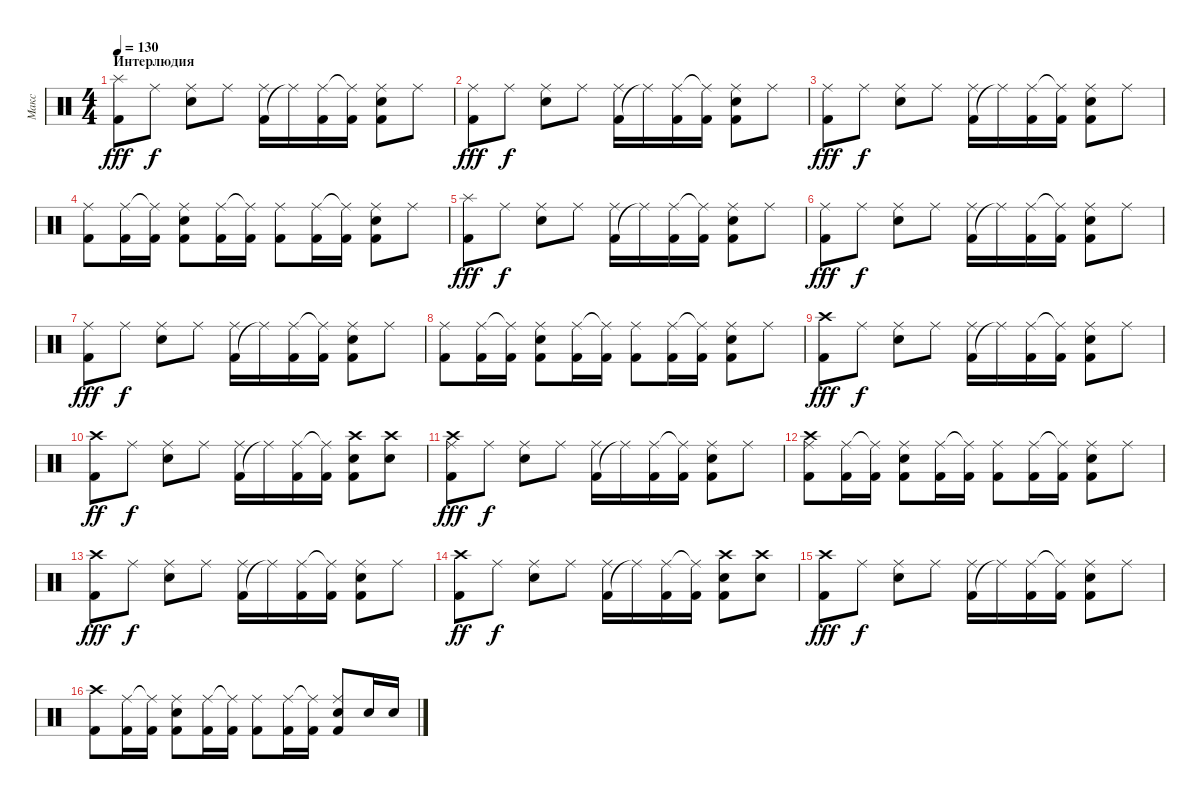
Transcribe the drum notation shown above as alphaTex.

\track ("Макс" "Макс") {instrument percussion}
\staff {score}
\articulation defaults
\ts (4 4)
\section ("" "Интерлюдия")
\tempo 130
\clef neutral
\ks c
("Kick (hit) 2" "Splash (hit)").8{dy fff} "Ride (middle)".8{dy f} ("Ride (middle)" "Electric Snare (hit)").8 "Ride (middle)".8 ("Kick (hit) 2" "Ride (middle)").16 "Ride (middle)"{t}.16 ("Kick (hit) 2" "Ride (middle)").16 ("Kick (hit) 2" "Ride (middle)"{t}).16 ("Kick (hit) 2" "Ride (middle)" "Electric Snare (hit)").8 "Ride (middle)".8 |
("Kick (hit) 2" "Ride (middle)").8{dy fff} "Ride (middle)".8{dy f} ("Ride (middle)" "Electric Snare (hit)").8 "Ride (middle)".8 ("Kick (hit) 2" "Ride (middle)").16 "Ride (middle)"{t}.16 ("Kick (hit) 2" "Ride (middle)").16 ("Kick (hit) 2" "Ride (middle)"{t}).16 ("Kick (hit) 2" "Ride (middle)" "Electric Snare (hit)").8 "Ride (middle)".8 |
("Kick (hit) 2" "Ride (middle)").8{dy fff} "Ride (middle)".8{dy f} ("Ride (middle)" "Electric Snare (hit)").8 "Ride (middle)".8 ("Kick (hit) 2" "Ride (middle)").16 "Ride (middle)"{t}.16 ("Kick (hit) 2" "Ride (middle)").16 ("Kick (hit) 2" "Ride (middle)"{t}).16 ("Kick (hit) 2" "Ride (middle)" "Electric Snare (hit)").8 "Ride (middle)".8 |
("Kick (hit) 2" "Ride (middle)").8 ("Kick (hit) 2" "Ride (middle)").16 ("Kick (hit) 2" "Ride (middle)"{t}).16 ("Kick (hit) 2" "Ride (middle)" "Electric Snare (hit)").8 ("Kick (hit) 2" "Ride (middle)").16 ("Kick (hit) 2" "Ride (middle)"{t}).16 ("Kick (hit) 2" "Ride (middle)").8 ("Kick (hit) 2" "Ride (middle)").16 ("Kick (hit) 2" "Ride (middle)"{t}).16 ("Kick (hit) 2" "Ride (middle)" "Electric Snare (hit)").8 "Ride (middle)".8 |
("Kick (hit) 2" "Splash (hit)").8{dy fff} "Ride (middle)".8{dy f} ("Ride (middle)" "Electric Snare (hit)").8 "Ride (middle)".8 ("Kick (hit) 2" "Ride (middle)").16 "Ride (middle)"{t}.16 ("Kick (hit) 2" "Ride (middle)").16 ("Kick (hit) 2" "Ride (middle)"{t}).16 ("Kick (hit) 2" "Ride (middle)" "Electric Snare (hit)").8 "Ride (middle)".8 |
("Kick (hit) 2" "Ride (middle)").8{dy fff} "Ride (middle)".8{dy f} ("Ride (middle)" "Electric Snare (hit)").8 "Ride (middle)".8 ("Kick (hit) 2" "Ride (middle)").16 "Ride (middle)"{t}.16 ("Kick (hit) 2" "Ride (middle)").16 ("Kick (hit) 2" "Ride (middle)"{t}).16 ("Kick (hit) 2" "Ride (middle)" "Electric Snare (hit)").8 "Ride (middle)".8 |
("Kick (hit) 2" "Ride (middle)").8{dy fff} "Ride (middle)".8{dy f} ("Ride (middle)" "Electric Snare (hit)").8 "Ride (middle)".8 ("Kick (hit) 2" "Ride (middle)").16 "Ride (middle)"{t}.16 ("Kick (hit) 2" "Ride (middle)").16 ("Kick (hit) 2" "Ride (middle)"{t}).16 ("Kick (hit) 2" "Ride (middle)" "Electric Snare (hit)").8 "Ride (middle)".8 |
("Kick (hit) 2" "Ride (middle)").8 ("Kick (hit) 2" "Ride (middle)").16 ("Kick (hit) 2" "Ride (middle)"{t}).16 ("Kick (hit) 2" "Ride (middle)" "Electric Snare (hit)").8 ("Kick (hit) 2" "Ride (middle)").16 ("Kick (hit) 2" "Ride (middle)"{t}).16 ("Kick (hit) 2" "Ride (middle)").8 ("Kick (hit) 2" "Ride (middle)").16 ("Kick (hit) 2" "Ride (middle)"{t}).16 ("Kick (hit) 2" "Ride (middle)" "Electric Snare (hit)").8 "Ride (middle)".8 |
("Crash high (hit)" "Kick (hit) 2").8{dy fff} "Ride (middle)".8{dy f} ("Ride (middle)" "Electric Snare (hit)").8 "Ride (middle)".8 ("Kick (hit) 2" "Ride (middle)").16 "Ride (middle)"{t}.16 ("Kick (hit) 2" "Ride (middle)").16 ("Kick (hit) 2" "Ride (middle)"{t}).16 ("Kick (hit) 2" "Ride (middle)" "Electric Snare (hit)").8 "Ride (middle)".8 |
("Kick (hit) 2" "Crash high (hit)").8{dy ff} "Ride (middle)".8{dy f} ("Ride (middle)" "Electric Snare (hit)").8 "Ride (middle)".8 ("Kick (hit) 2" "Ride (middle)").16 "Ride (middle)"{t}.16 ("Kick (hit) 2" "Ride (middle)").16 ("Kick (hit) 2" "Ride (middle)"{t}).16 ("Crash high (hit)" "Kick (hit) 2" "Electric Snare (hit)").8 ("Electric Snare (hit)" "Crash high (hit)").8 |
("Crash high (hit)" "Kick (hit) 2" "Ride (middle)").8{dy fff} "Ride (middle)".8{dy f} ("Ride (middle)" "Electric Snare (hit)").8 "Ride (middle)".8 ("Kick (hit) 2" "Ride (middle)").16 "Ride (middle)"{t}.16 ("Kick (hit) 2" "Ride (middle)").16 ("Kick (hit) 2" "Ride (middle)"{t}).16 ("Kick (hit) 2" "Ride (middle)" "Electric Snare (hit)").8 "Ride (middle)".8 |
("Kick (hit) 2" "Ride (middle)" "Crash high (hit)").8 ("Kick (hit) 2" "Ride (middle)").16 ("Kick (hit) 2" "Ride (middle)"{t}).16 ("Kick (hit) 2" "Ride (middle)" "Electric Snare (hit)").8 ("Kick (hit) 2" "Ride (middle)").16 ("Kick (hit) 2" "Ride (middle)"{t}).16 ("Kick (hit) 2" "Ride (middle)").8 ("Kick (hit) 2" "Ride (middle)").16 ("Kick (hit) 2" "Ride (middle)"{t}).16 ("Kick (hit) 2" "Ride (middle)" "Electric Snare (hit)").8 "Ride (middle)".8 |
("Kick (hit) 2" "Crash high (hit)").8{dy fff} "Ride (middle)".8{dy f} ("Ride (middle)" "Electric Snare (hit)").8 "Ride (middle)".8 ("Kick (hit) 2" "Ride (middle)").16 "Ride (middle)"{t}.16 ("Kick (hit) 2" "Ride (middle)").16 ("Kick (hit) 2" "Ride (middle)"{t}).16 ("Kick (hit) 2" "Ride (middle)" "Electric Snare (hit)").8 "Ride (middle)".8 |
("Kick (hit) 2" "Crash high (hit)").8{dy ff} "Ride (middle)".8{dy f} ("Ride (middle)" "Electric Snare (hit)").8 "Ride (middle)".8 ("Kick (hit) 2" "Ride (middle)").16 "Ride (middle)"{t}.16 ("Kick (hit) 2" "Ride (middle)").16 ("Kick (hit) 2" "Ride (middle)"{t}).16 ("Crash high (hit)" "Kick (hit) 2" "Electric Snare (hit)").8 ("Electric Snare (hit)" "Crash high (hit)").8 |
("Kick (hit) 2" "Crash high (hit)").8{dy fff} "Ride (middle)".8{dy f} ("Ride (middle)" "Electric Snare (hit)").8 "Ride (middle)".8 ("Kick (hit) 2" "Ride (middle)").16 "Ride (middle)"{t}.16 ("Kick (hit) 2" "Ride (middle)").16 ("Kick (hit) 2" "Ride (middle)"{t}).16 ("Kick (hit) 2" "Ride (middle)" "Electric Snare (hit)").8 "Ride (middle)".8 |
("Kick (hit) 2" "Crash high (hit)").8 ("Kick (hit) 2" "Ride (middle)").16 ("Kick (hit) 2" "Ride (middle)"{t}).16 ("Kick (hit) 2" "Ride (middle)" "Electric Snare (hit)").8 ("Kick (hit) 2" "Ride (middle)").16 ("Kick (hit) 2" "Ride (middle)"{t}).16 ("Kick (hit) 2" "Ride (middle)").8 ("Kick (hit) 2" "Ride (middle)").16 ("Kick (hit) 2" "Ride (middle)"{t}).16 ("Kick (hit) 2" "Ride (middle)" "Electric Snare (hit)").8 "Electric Snare (hit)".16 "Electric Snare (hit)".16
